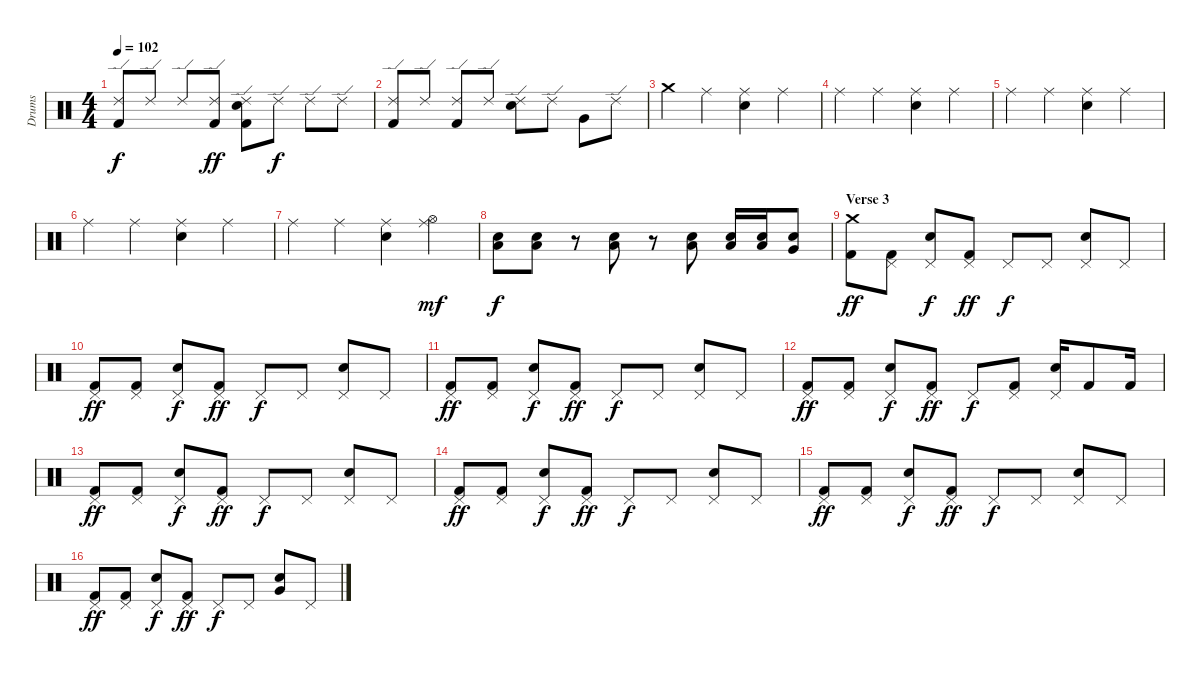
\track ("Drums" "Drums") {instrument percussion}
\staff {score}
\articulation defaults
\ts (4 4)
\tempo 102
\clef neutral
\ks c
("Ride (edge) 2" "Kick (hit) 2").8{dy f} "Ride (edge) 2".8 "Ride (edge) 2".8 ("Ride (edge) 2" "Kick (hit) 2").8{dy ff} ("Electric Snare (hit)" "Ride (edge) 2" "Kick (hit) 2").8 "Ride (edge) 2".8{dy f} "Ride (edge) 2".8 "Ride (edge) 2".8 |
("Ride (edge) 2" "Kick (hit) 2").8 "Ride (edge) 2".8 ("Ride (edge) 2" "Kick (hit) 2").8 "Ride (edge) 2".8 ("Electric Snare (hit)" "Ride (edge) 2").8 "Ride (edge) 2".8 "Very Low Tom (hit)".8 "Ride (edge) 2".8 |
"Crash medium (hit)".4 "Ride (middle)".4 ("Electric Snare (hit)" "Ride (middle)").4 "Ride (middle)".4 |
"Ride (middle)".4 "Ride (middle)".4 ("Electric Snare (hit)" "Ride (middle)").4 "Ride (middle)".4 |
"Ride (middle)".4 "Ride (middle)".4 ("Electric Snare (hit)" "Ride (middle)").4 "Ride (middle)".4 |
"Ride (middle)".4 "Ride (middle)".4 ("Electric Snare (hit)" "Ride (middle)").4 "Ride (middle)".4 |
"Ride (middle)".4 "Ride (middle)".4 ("Electric Snare (hit)" "Ride (middle)").4 ("Hi-Hat (open)" "Ride (middle)").4{dy mf} |
("Low Tom (hit)" "Electric Snare (hit)").8{dy f} ("Low Tom (hit)" "Electric Snare (hit)").8 r.8 ("Low Tom (hit)" "Electric Snare (hit)").8 r.8 ("Low Tom (hit)" "Electric Snare (hit)").8 ("Low Tom (hit)" "Electric Snare (hit)").16 ("Low Tom (hit)" "Electric Snare (hit)").16 ("Very Low Tom (hit)" "Electric Snare (hit)").8 |
\section ("" "Verse 3")
("Crash medium (hit)" "Kick (hit) 2").8{dy ff} ("Pedal Hi-Hat (hit)" "Kick (hit) 2").8 ("Electric Snare (hit)" "Pedal Hi-Hat (hit)").8{dy f} ("Pedal Hi-Hat (hit)" "Kick (hit) 2").8{dy ff} "Pedal Hi-Hat (hit)".8{dy f} "Pedal Hi-Hat (hit)".8 ("Electric Snare (hit)" "Pedal Hi-Hat (hit)").8 "Pedal Hi-Hat (hit)".8 |
("Pedal Hi-Hat (hit)" "Kick (hit) 2").8{dy ff} ("Pedal Hi-Hat (hit)" "Kick (hit) 2").8 ("Electric Snare (hit)" "Pedal Hi-Hat (hit)").8{dy f} ("Pedal Hi-Hat (hit)" "Kick (hit) 2").8{dy ff} "Pedal Hi-Hat (hit)".8{dy f} "Pedal Hi-Hat (hit)".8 ("Electric Snare (hit)" "Pedal Hi-Hat (hit)").8 "Pedal Hi-Hat (hit)".8 |
("Pedal Hi-Hat (hit)" "Kick (hit) 2").8{dy ff} ("Pedal Hi-Hat (hit)" "Kick (hit) 2").8 ("Electric Snare (hit)" "Pedal Hi-Hat (hit)").8{dy f} ("Pedal Hi-Hat (hit)" "Kick (hit) 2").8{dy ff} "Pedal Hi-Hat (hit)".8{dy f} "Pedal Hi-Hat (hit)".8 ("Electric Snare (hit)" "Pedal Hi-Hat (hit)").8 "Pedal Hi-Hat (hit)".8 |
("Pedal Hi-Hat (hit)" "Kick (hit) 2").8{dy ff} ("Pedal Hi-Hat (hit)" "Kick (hit) 2").8 ("Electric Snare (hit)" "Pedal Hi-Hat (hit)").8{dy f} ("Pedal Hi-Hat (hit)" "Kick (hit) 2").8{dy ff} "Pedal Hi-Hat (hit)".8{dy f} ("Pedal Hi-Hat (hit)" "Kick (hit) 2").8 ("Electric Snare (hit)" "Pedal Hi-Hat (hit)").16 "Kick (hit) 2".8 "Kick (hit) 2".16 |
("Pedal Hi-Hat (hit)" "Kick (hit) 2").8{dy ff} ("Pedal Hi-Hat (hit)" "Kick (hit) 2").8 ("Electric Snare (hit)" "Pedal Hi-Hat (hit)").8{dy f} ("Pedal Hi-Hat (hit)" "Kick (hit) 2").8{dy ff} "Pedal Hi-Hat (hit)".8{dy f} "Pedal Hi-Hat (hit)".8 ("Electric Snare (hit)" "Pedal Hi-Hat (hit)").8 "Pedal Hi-Hat (hit)".8 |
("Pedal Hi-Hat (hit)" "Kick (hit) 2").8{dy ff} ("Pedal Hi-Hat (hit)" "Kick (hit) 2").8 ("Electric Snare (hit)" "Pedal Hi-Hat (hit)").8{dy f} ("Pedal Hi-Hat (hit)" "Kick (hit) 2").8{dy ff} "Pedal Hi-Hat (hit)".8{dy f} "Pedal Hi-Hat (hit)".8 ("Electric Snare (hit)" "Pedal Hi-Hat (hit)").8 "Pedal Hi-Hat (hit)".8 |
("Pedal Hi-Hat (hit)" "Kick (hit) 2").8{dy ff} ("Pedal Hi-Hat (hit)" "Kick (hit) 2").8 ("Electric Snare (hit)" "Pedal Hi-Hat (hit)").8{dy f} ("Pedal Hi-Hat (hit)" "Kick (hit) 2").8{dy ff} "Pedal Hi-Hat (hit)".8{dy f} "Pedal Hi-Hat (hit)".8 ("Electric Snare (hit)" "Pedal Hi-Hat (hit)").8 "Pedal Hi-Hat (hit)".8 |
("Pedal Hi-Hat (hit)" "Kick (hit) 2").8{dy ff} ("Pedal Hi-Hat (hit)" "Kick (hit) 2").8 ("Electric Snare (hit)" "Pedal Hi-Hat (hit)").8{dy f} ("Pedal Hi-Hat (hit)" "Kick (hit) 2").8{dy ff} "Pedal Hi-Hat (hit)".8{dy f} "Pedal Hi-Hat (hit)".8 ("Electric Snare (hit)" "Very Low Tom (hit)").8 "Pedal Hi-Hat (hit)".8
